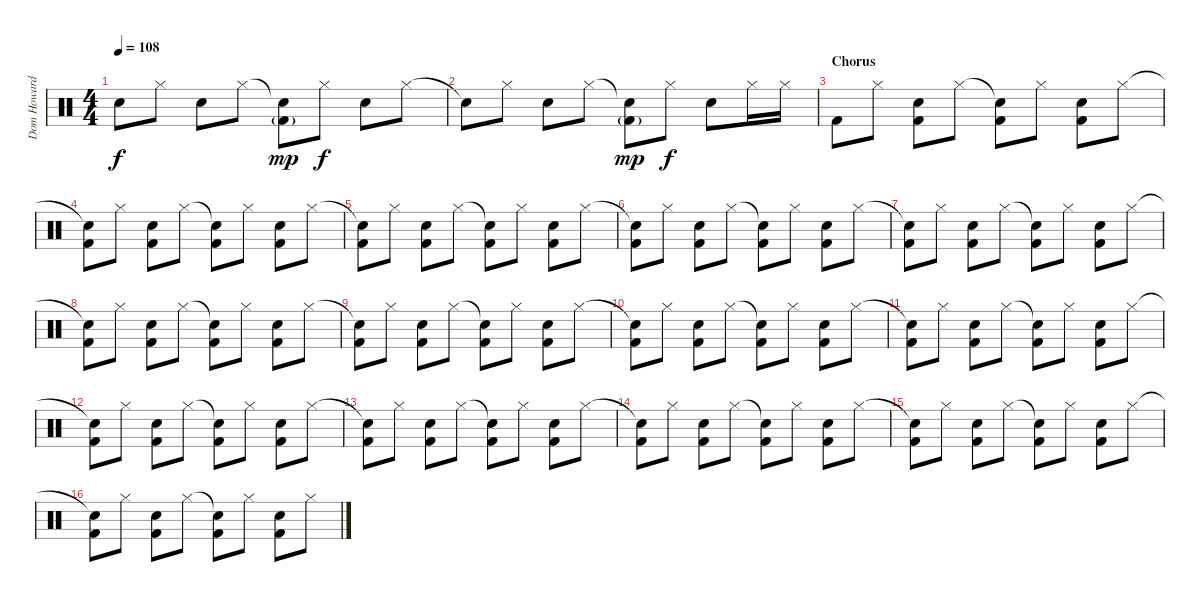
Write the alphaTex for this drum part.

\track ("Dom Howard" "Dom Howard") {instrument percussion}
\staff {score}
\articulation defaults
\ts (4 4)
\tempo 108
\clef neutral
\ks c "Snare (hit)"{t}.8{dy f} "Hi-Hat (closed)".8 "Electric Snare (hit)".8 "Hi-Hat (closed)".8
("Snare (hit)"{t} "Kick (hit) 2"{g}).8{dy mp} "Hi-Hat (closed)".8{dy f} "Electric Snare (hit)".8 "Hi-Hat (closed)".8 |
"Snare (hit)"{t}.8 "Hi-Hat (closed)".8 "Electric Snare (hit)".8 "Hi-Hat (closed)".8 ("Snare (hit)"{t} "Kick (hit) 2"{g}).8{dy mp} "Hi-Hat (closed)".8{dy f} "Electric Snare (hit)".8 "Hi-Hat (closed)".16 "Hi-Hat (closed)".16 |
\section ("" "Chorus")
"Kick (hit) 2".8 "Hi-Hat (closed)".8 ("Electric Snare (hit)" "Kick (hit) 2").8 "Hi-Hat (closed)".8 ("Snare (hit)"{t} "Kick (hit) 2").8 "Hi-Hat (closed)".8 ("Electric Snare (hit)" "Kick (hit) 2").8 "Hi-Hat (closed)".8 |
("Snare (hit)"{t} "Kick (hit) 2").8 "Hi-Hat (closed)".8 ("Electric Snare (hit)" "Kick (hit) 2").8 "Hi-Hat (closed)".8 ("Snare (hit)"{t} "Kick (hit) 2").8 "Hi-Hat (closed)".8 ("Electric Snare (hit)" "Kick (hit) 2").8 "Hi-Hat (closed)".8 |
("Snare (hit)"{t} "Kick (hit) 2").8 "Hi-Hat (closed)".8 ("Electric Snare (hit)" "Kick (hit) 2").8 "Hi-Hat (closed)".8 ("Snare (hit)"{t} "Kick (hit) 2").8 "Hi-Hat (closed)".8 ("Electric Snare (hit)" "Kick (hit) 2").8 "Hi-Hat (closed)".8 |
("Snare (hit)"{t} "Kick (hit) 2").8 "Hi-Hat (closed)".8 ("Electric Snare (hit)" "Kick (hit) 2").8 "Hi-Hat (closed)".8 ("Snare (hit)"{t} "Kick (hit) 2").8 "Hi-Hat (closed)".8 ("Electric Snare (hit)" "Kick (hit) 2").8 "Hi-Hat (closed)".8 |
("Snare (hit)"{t} "Kick (hit) 2").8 "Hi-Hat (closed)".8 ("Electric Snare (hit)" "Kick (hit) 2").8 "Hi-Hat (closed)".8 ("Snare (hit)"{t} "Kick (hit) 2").8 "Hi-Hat (closed)".8 ("Electric Snare (hit)" "Kick (hit) 2").8 "Hi-Hat (closed)".8 |
("Snare (hit)"{t} "Kick (hit) 2").8 "Hi-Hat (closed)".8 ("Electric Snare (hit)" "Kick (hit) 2").8 "Hi-Hat (closed)".8 ("Snare (hit)"{t} "Kick (hit) 2").8 "Hi-Hat (closed)".8 ("Electric Snare (hit)" "Kick (hit) 2").8 "Hi-Hat (closed)".8 |
("Snare (hit)"{t} "Kick (hit) 2").8 "Hi-Hat (closed)".8 ("Electric Snare (hit)" "Kick (hit) 2").8 "Hi-Hat (closed)".8 ("Snare (hit)"{t} "Kick (hit) 2").8 "Hi-Hat (closed)".8 ("Electric Snare (hit)" "Kick (hit) 2").8 "Hi-Hat (closed)".8 |
("Snare (hit)"{t} "Kick (hit) 2").8 "Hi-Hat (closed)".8 ("Electric Snare (hit)" "Kick (hit) 2").8 "Hi-Hat (closed)".8 ("Snare (hit)"{t} "Kick (hit) 2").8 "Hi-Hat (closed)".8 ("Electric Snare (hit)" "Kick (hit) 2").8 "Hi-Hat (closed)".8 |
("Snare (hit)"{t} "Kick (hit) 2").8 "Hi-Hat (closed)".8 ("Electric Snare (hit)" "Kick (hit) 2").8 "Hi-Hat (closed)".8 ("Snare (hit)"{t} "Kick (hit) 2").8 "Hi-Hat (closed)".8 ("Electric Snare (hit)" "Kick (hit) 2").8 "Hi-Hat (closed)".8 |
("Snare (hit)"{t} "Kick (hit) 2").8 "Hi-Hat (closed)".8 ("Electric Snare (hit)" "Kick (hit) 2").8 "Hi-Hat (closed)".8 ("Snare (hit)"{t} "Kick (hit) 2").8 "Hi-Hat (closed)".8 ("Electric Snare (hit)" "Kick (hit) 2").8 "Hi-Hat (closed)".8 |
("Snare (hit)"{t} "Kick (hit) 2").8 "Hi-Hat (closed)".8 ("Electric Snare (hit)" "Kick (hit) 2").8 "Hi-Hat (closed)".8 ("Snare (hit)"{t} "Kick (hit) 2").8 "Hi-Hat (closed)".8 ("Electric Snare (hit)" "Kick (hit) 2").8 "Hi-Hat (closed)".8 |
("Snare (hit)"{t} "Kick (hit) 2").8 "Hi-Hat (closed)".8 ("Electric Snare (hit)" "Kick (hit) 2").8 "Hi-Hat (closed)".8 ("Snare (hit)"{t} "Kick (hit) 2").8 "Hi-Hat (closed)".8 ("Electric Snare (hit)" "Kick (hit) 2").8 "Hi-Hat (closed)".8 |
("Snare (hit)"{t} "Kick (hit) 2").8 "Hi-Hat (closed)".8 ("Electric Snare (hit)" "Kick (hit) 2").8 "Hi-Hat (closed)".8 ("Snare (hit)"{t} "Kick (hit) 2").8 "Hi-Hat (closed)".8 ("Electric Snare (hit)" "Kick (hit) 2").8 "Hi-Hat (closed)".8 |
("Snare (hit)"{t} "Kick (hit) 2").8 "Hi-Hat (closed)".8 ("Electric Snare (hit)" "Kick (hit) 2").8 "Hi-Hat (closed)".8 ("Snare (hit)"{t} "Kick (hit) 2").8 "Hi-Hat (closed)".8 ("Electric Snare (hit)" "Kick (hit) 2").8 "Hi-Hat (closed)".8
